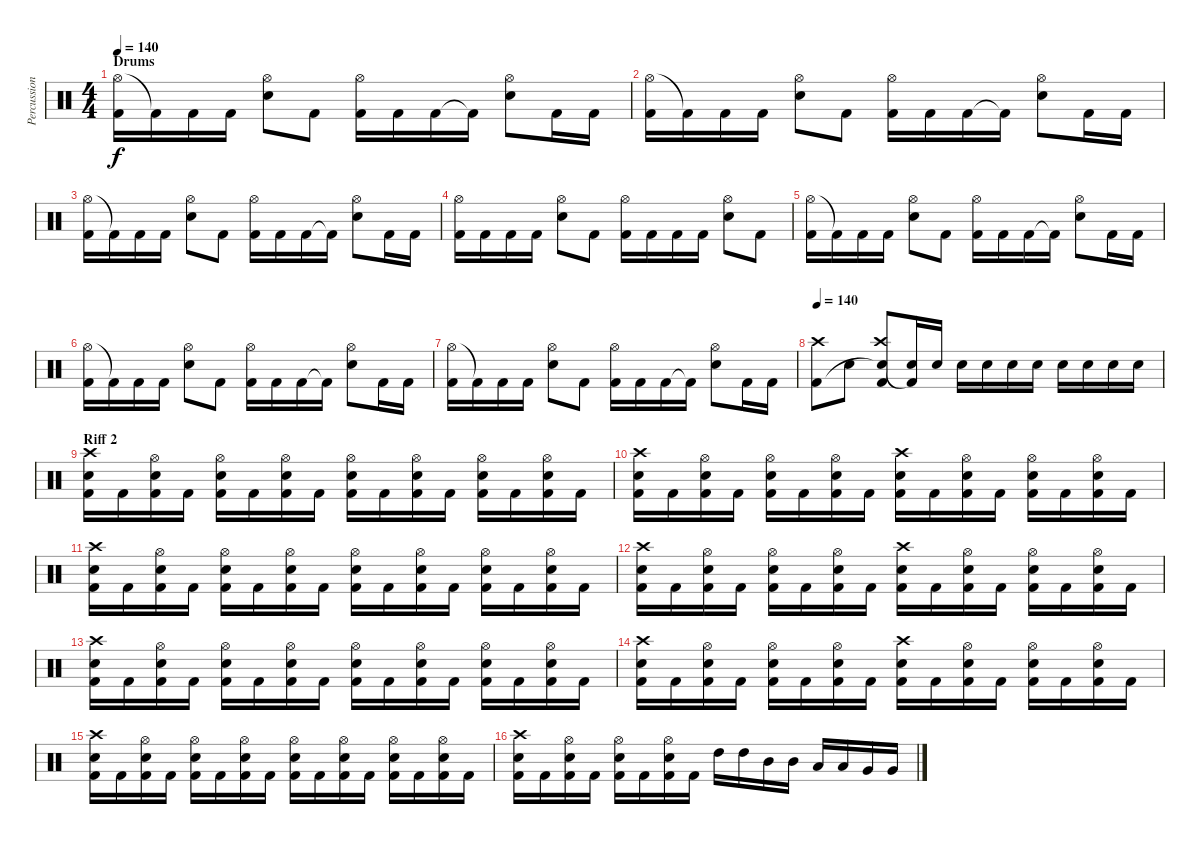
\track ("Percussion" "Percussion") {instrument percussion}
\staff {score}
\articulation defaults
\ts (4 4)
\section ("" "Drums")
\tempo 140
\clef neutral
\ks c
("Hi-Hat (open)" "Kick (hit) 2").16{dy f} "Kick (hit) 2"{t}.16 "Kick (hit) 2".16 "Kick (hit) 2".16 ("Hi-Hat (open)" "Electric Snare (hit)").8 "Kick (hit) 2".8 ("Hi-Hat (open)" "Kick (hit) 2").16 "Kick (hit) 2".16 "Kick (hit) 2".16 "Kick (hit) 2"{t}.16 ("Hi-Hat (open)" "Electric Snare (hit)").8 "Kick (hit) 2".16 "Kick (hit) 2".16 |
("Hi-Hat (open)" "Kick (hit) 2").16 "Kick (hit) 2"{t}.16 "Kick (hit) 2".16 "Kick (hit) 2".16 ("Hi-Hat (open)" "Electric Snare (hit)").8 "Kick (hit) 2".8 ("Hi-Hat (open)" "Kick (hit) 2").16 "Kick (hit) 2".16 "Kick (hit) 2".16 "Kick (hit) 2"{t}.16 ("Hi-Hat (open)" "Electric Snare (hit)").8 "Kick (hit) 2".16 "Kick (hit) 2".16 |
("Hi-Hat (open)" "Kick (hit) 2").16 "Kick (hit) 2"{t}.16 "Kick (hit) 2".16 "Kick (hit) 2".16 ("Hi-Hat (open)" "Electric Snare (hit)").8 "Kick (hit) 2".8 ("Hi-Hat (open)" "Kick (hit) 2").16 "Kick (hit) 2".16 "Kick (hit) 2".16 "Kick (hit) 2"{t}.16 ("Hi-Hat (open)" "Electric Snare (hit)").8 "Kick (hit) 2".16 "Kick (hit) 2".16 |
("Hi-Hat (open)" "Kick (hit) 2").16 "Kick (hit) 2".16 "Kick (hit) 2".16 "Kick (hit) 2".16 ("Hi-Hat (open)" "Electric Snare (hit)").8 "Kick (hit) 2".8 ("Hi-Hat (open)" "Kick (hit) 2").16 "Kick (hit) 2".16 "Kick (hit) 2".16 "Kick (hit) 2".16 ("Hi-Hat (open)" "Electric Snare (hit)").8 "Kick (hit) 2".8 |
("Hi-Hat (open)" "Kick (hit) 2").16 "Kick (hit) 2"{t}.16 "Kick (hit) 2".16 "Kick (hit) 2".16 ("Hi-Hat (open)" "Electric Snare (hit)").8 "Kick (hit) 2".8 ("Hi-Hat (open)" "Kick (hit) 2").16 "Kick (hit) 2".16 "Kick (hit) 2".16 "Kick (hit) 2"{t}.16 ("Hi-Hat (open)" "Electric Snare (hit)").8 "Kick (hit) 2".16 "Kick (hit) 2".16 |
("Hi-Hat (open)" "Kick (hit) 2").16 "Kick (hit) 2"{t}.16 "Kick (hit) 2".16 "Kick (hit) 2".16 ("Hi-Hat (open)" "Electric Snare (hit)").8 "Kick (hit) 2".8 ("Hi-Hat (open)" "Kick (hit) 2").16 "Kick (hit) 2".16 "Kick (hit) 2".16 "Kick (hit) 2"{t}.16 ("Hi-Hat (open)" "Electric Snare (hit)").8 "Kick (hit) 2".16 "Kick (hit) 2".16 |
("Hi-Hat (open)" "Kick (hit) 2").16 "Kick (hit) 2"{t}.16 "Kick (hit) 2".16 "Kick (hit) 2".16 ("Hi-Hat (open)" "Electric Snare (hit)").8 "Kick (hit) 2".8 ("Hi-Hat (open)" "Kick (hit) 2").16 "Kick (hit) 2".16 "Kick (hit) 2".16 "Kick (hit) 2"{t}.16 ("Hi-Hat (open)" "Electric Snare (hit)").8 "Kick (hit) 2".16 "Kick (hit) 2".16 |
\tempo 140
("Crash high (hit)" "Kick (hit) 2").8 "Electric Snare (hit)".8 ("Crash high (hit)" "Snare (hit)"{t} "Kick (hit) 2").8 ("Electric Snare (hit)" "Kick (hit) 2"{t}).16 "Electric Snare (hit)".16 "Electric Snare (hit)".16 "Electric Snare (hit)".16 "Electric Snare (hit)".16 "Electric Snare (hit)".16 "Electric Snare (hit)".16 "Electric Snare (hit)".16 "Electric Snare (hit)".16 "Electric Snare (hit)".16 |
\section ("" "Riff 2")
("Crash high (hit)" "Electric Snare (hit)" "Kick (hit) 2").16 "Kick (hit) 2".16 ("Hi-Hat (open)" "Electric Snare (hit)" "Kick (hit) 2").16 "Kick (hit) 2".16 ("Hi-Hat (open)" "Electric Snare (hit)" "Kick (hit) 2").16 "Kick (hit) 2".16 ("Hi-Hat (open)" "Electric Snare (hit)" "Kick (hit) 2").16 "Kick (hit) 2".16 ("Hi-Hat (open)" "Electric Snare (hit)" "Kick (hit) 2").16 "Kick (hit) 2".16 ("Hi-Hat (open)" "Electric Snare (hit)" "Kick (hit) 2").16 "Kick (hit) 2".16 ("Hi-Hat (open)" "Electric Snare (hit)" "Kick (hit) 2").16 "Kick (hit) 2".16 ("Hi-Hat (open)" "Electric Snare (hit)" "Kick (hit) 2").16 "Kick (hit) 2".16 |
("Crash high (hit)" "Electric Snare (hit)" "Kick (hit) 2").16 "Kick (hit) 2".16 ("Hi-Hat (open)" "Electric Snare (hit)" "Kick (hit) 2").16 "Kick (hit) 2".16 ("Hi-Hat (open)" "Electric Snare (hit)" "Kick (hit) 2").16 "Kick (hit) 2".16 ("Hi-Hat (open)" "Electric Snare (hit)" "Kick (hit) 2").16 "Kick (hit) 2".16 ("Crash high (hit)" "Electric Snare (hit)" "Kick (hit) 2").16 "Kick (hit) 2".16 ("Hi-Hat (open)" "Electric Snare (hit)" "Kick (hit) 2").16 "Kick (hit) 2".16 ("Hi-Hat (open)" "Electric Snare (hit)" "Kick (hit) 2").16 "Kick (hit) 2".16 ("Hi-Hat (open)" "Electric Snare (hit)" "Kick (hit) 2").16 "Kick (hit) 2".16 |
("Crash high (hit)" "Electric Snare (hit)" "Kick (hit) 2").16 "Kick (hit) 2".16 ("Hi-Hat (open)" "Electric Snare (hit)" "Kick (hit) 2").16 "Kick (hit) 2".16 ("Hi-Hat (open)" "Electric Snare (hit)" "Kick (hit) 2").16 "Kick (hit) 2".16 ("Hi-Hat (open)" "Electric Snare (hit)" "Kick (hit) 2").16 "Kick (hit) 2".16 ("Hi-Hat (open)" "Electric Snare (hit)" "Kick (hit) 2").16 "Kick (hit) 2".16 ("Hi-Hat (open)" "Electric Snare (hit)" "Kick (hit) 2").16 "Kick (hit) 2".16 ("Hi-Hat (open)" "Electric Snare (hit)" "Kick (hit) 2").16 "Kick (hit) 2".16 ("Hi-Hat (open)" "Electric Snare (hit)" "Kick (hit) 2").16 "Kick (hit) 2".16 |
("Crash high (hit)" "Electric Snare (hit)" "Kick (hit) 2").16 "Kick (hit) 2".16 ("Hi-Hat (open)" "Electric Snare (hit)" "Kick (hit) 2").16 "Kick (hit) 2".16 ("Hi-Hat (open)" "Electric Snare (hit)" "Kick (hit) 2").16 "Kick (hit) 2".16 ("Hi-Hat (open)" "Electric Snare (hit)" "Kick (hit) 2").16 "Kick (hit) 2".16 ("Crash high (hit)" "Electric Snare (hit)" "Kick (hit) 2").16 "Kick (hit) 2".16 ("Hi-Hat (open)" "Electric Snare (hit)" "Kick (hit) 2").16 "Kick (hit) 2".16 ("Hi-Hat (open)" "Electric Snare (hit)" "Kick (hit) 2").16 "Kick (hit) 2".16 ("Hi-Hat (open)" "Electric Snare (hit)" "Kick (hit) 2").16 "Kick (hit) 2".16 |
("Crash high (hit)" "Electric Snare (hit)" "Kick (hit) 2").16 "Kick (hit) 2".16 ("Hi-Hat (open)" "Electric Snare (hit)" "Kick (hit) 2").16 "Kick (hit) 2".16 ("Hi-Hat (open)" "Electric Snare (hit)" "Kick (hit) 2").16 "Kick (hit) 2".16 ("Hi-Hat (open)" "Electric Snare (hit)" "Kick (hit) 2").16 "Kick (hit) 2".16 ("Hi-Hat (open)" "Electric Snare (hit)" "Kick (hit) 2").16 "Kick (hit) 2".16 ("Hi-Hat (open)" "Electric Snare (hit)" "Kick (hit) 2").16 "Kick (hit) 2".16 ("Hi-Hat (open)" "Electric Snare (hit)" "Kick (hit) 2").16 "Kick (hit) 2".16 ("Hi-Hat (open)" "Electric Snare (hit)" "Kick (hit) 2").16 "Kick (hit) 2".16 |
("Crash high (hit)" "Electric Snare (hit)" "Kick (hit) 2").16 "Kick (hit) 2".16 ("Hi-Hat (open)" "Electric Snare (hit)" "Kick (hit) 2").16 "Kick (hit) 2".16 ("Hi-Hat (open)" "Electric Snare (hit)" "Kick (hit) 2").16 "Kick (hit) 2".16 ("Hi-Hat (open)" "Electric Snare (hit)" "Kick (hit) 2").16 "Kick (hit) 2".16 ("Crash high (hit)" "Electric Snare (hit)" "Kick (hit) 2").16 "Kick (hit) 2".16 ("Hi-Hat (open)" "Electric Snare (hit)" "Kick (hit) 2").16 "Kick (hit) 2".16 ("Hi-Hat (open)" "Electric Snare (hit)" "Kick (hit) 2").16 "Kick (hit) 2".16 ("Hi-Hat (open)" "Electric Snare (hit)" "Kick (hit) 2").16 "Kick (hit) 2".16 |
("Crash high (hit)" "Electric Snare (hit)" "Kick (hit) 2").16 "Kick (hit) 2".16 ("Hi-Hat (open)" "Electric Snare (hit)" "Kick (hit) 2").16 "Kick (hit) 2".16 ("Hi-Hat (open)" "Electric Snare (hit)" "Kick (hit) 2").16 "Kick (hit) 2".16 ("Hi-Hat (open)" "Electric Snare (hit)" "Kick (hit) 2").16 "Kick (hit) 2".16 ("Hi-Hat (open)" "Electric Snare (hit)" "Kick (hit) 2").16 "Kick (hit) 2".16 ("Hi-Hat (open)" "Electric Snare (hit)" "Kick (hit) 2").16 "Kick (hit) 2".16 ("Hi-Hat (open)" "Electric Snare (hit)" "Kick (hit) 2").16 "Kick (hit) 2".16 ("Hi-Hat (open)" "Electric Snare (hit)" "Kick (hit) 2").16 "Kick (hit) 2".16 |
("Crash high (hit)" "Electric Snare (hit)" "Kick (hit) 2").16 "Kick (hit) 2".16 ("Hi-Hat (open)" "Electric Snare (hit)" "Kick (hit) 2").16 "Kick (hit) 2".16 ("Hi-Hat (open)" "Electric Snare (hit)" "Kick (hit) 2").16 "Kick (hit) 2".16 ("Hi-Hat (open)" "Electric Snare (hit)" "Kick (hit) 2").16 "Kick (hit) 2".16 "High Tom (hit)".16 "High Tom (hit)".16 "Mid Tom (hit)".16 "Mid Tom (hit)".16 "Low Tom (hit)".16 "Low Tom (hit)".16 "Very Low Tom (hit)".16 "Very Low Tom (hit)".16
